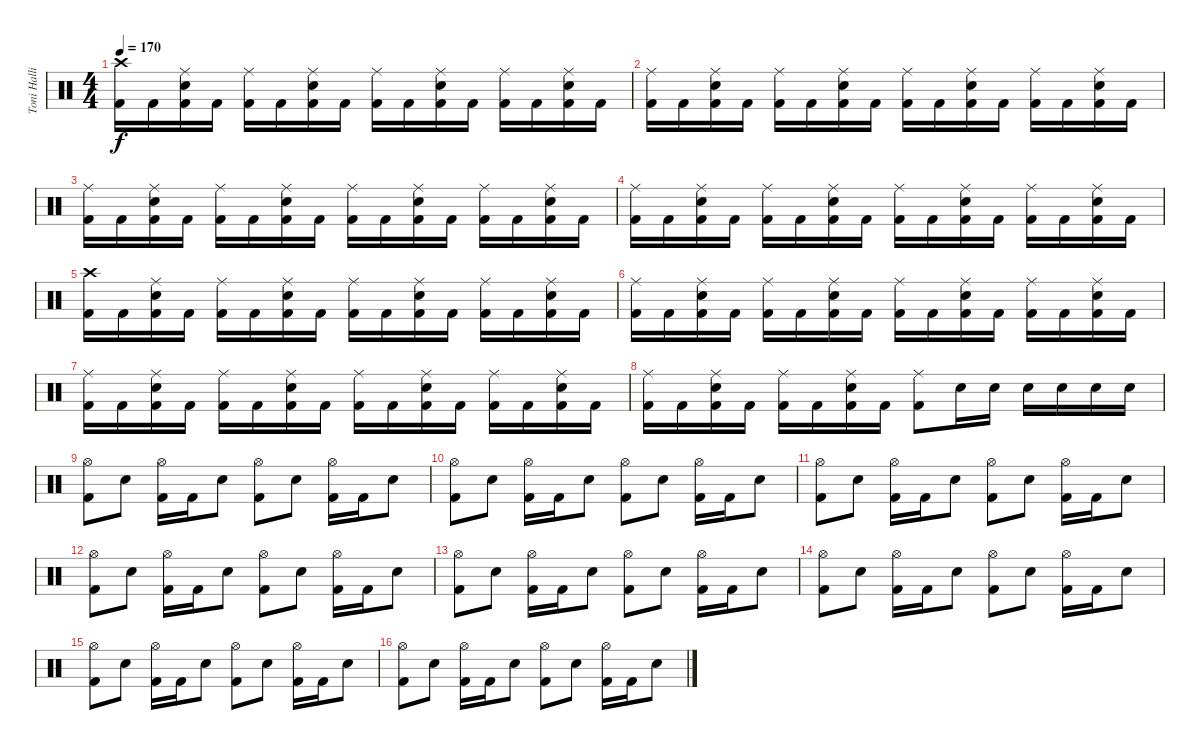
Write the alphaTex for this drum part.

\track ("Toni Hallio" "Toni Halli") {instrument percussion}
\staff {score}
\articulation defaults
\ts (4 4)
\tempo 170
\clef neutral
\ks c
("Crash high (hit)" "Kick (hit) 2").16{dy f} "Kick (hit) 2".16 ("Ride (middle)" "Snare (hit) 2" "Kick (hit) 2").16 "Kick (hit) 2".16 ("Ride (middle)" "Kick (hit) 2").16 "Kick (hit) 2".16 ("Ride (middle)" "Snare (hit) 2" "Kick (hit) 2").16 "Kick (hit) 2".16 ("Ride (middle)" "Kick (hit) 2").16 "Kick (hit) 2".16 ("Ride (middle)" "Snare (hit) 2" "Kick (hit) 2").16 "Kick (hit) 2".16 ("Ride (middle)" "Kick (hit) 2").16 "Kick (hit) 2".16 ("Ride (middle)" "Snare (hit) 2" "Kick (hit) 2").16 "Kick (hit) 2".16 |
("Ride (middle)" "Kick (hit) 2").16 "Kick (hit) 2".16 ("Ride (middle)" "Snare (hit) 2" "Kick (hit) 2").16 "Kick (hit) 2".16 ("Ride (middle)" "Kick (hit) 2").16 "Kick (hit) 2".16 ("Ride (middle)" "Snare (hit) 2" "Kick (hit) 2").16 "Kick (hit) 2".16 ("Ride (middle)" "Kick (hit) 2").16 "Kick (hit) 2".16 ("Ride (middle)" "Snare (hit) 2" "Kick (hit) 2").16 "Kick (hit) 2".16 ("Ride (middle)" "Kick (hit) 2").16 "Kick (hit) 2".16 ("Ride (middle)" "Snare (hit) 2" "Kick (hit) 2").16 "Kick (hit) 2".16 |
("Ride (middle)" "Kick (hit) 2").16 "Kick (hit) 2".16 ("Ride (middle)" "Snare (hit) 2" "Kick (hit) 2").16 "Kick (hit) 2".16 ("Ride (middle)" "Kick (hit) 2").16 "Kick (hit) 2".16 ("Ride (middle)" "Snare (hit) 2" "Kick (hit) 2").16 "Kick (hit) 2".16 ("Ride (middle)" "Kick (hit) 2").16 "Kick (hit) 2".16 ("Ride (middle)" "Snare (hit) 2" "Kick (hit) 2").16 "Kick (hit) 2".16 ("Ride (middle)" "Kick (hit) 2").16 "Kick (hit) 2".16 ("Ride (middle)" "Snare (hit) 2" "Kick (hit) 2").16 "Kick (hit) 2".16 |
("Ride (middle)" "Kick (hit) 2").16 "Kick (hit) 2".16 ("Ride (middle)" "Snare (hit) 2" "Kick (hit) 2").16 "Kick (hit) 2".16 ("Ride (middle)" "Kick (hit) 2").16 "Kick (hit) 2".16 ("Ride (middle)" "Snare (hit) 2" "Kick (hit) 2").16 "Kick (hit) 2".16 ("Ride (middle)" "Kick (hit) 2").16 "Kick (hit) 2".16 ("Ride (middle)" "Snare (hit) 2" "Kick (hit) 2").16 "Kick (hit) 2".16 ("Ride (middle)" "Kick (hit) 2").16 "Kick (hit) 2".16 ("Ride (middle)" "Snare (hit) 2" "Kick (hit) 2").16 "Kick (hit) 2".16 |
("Crash high (hit)" "Kick (hit) 2").16 "Kick (hit) 2".16 ("Ride (middle)" "Snare (hit) 2" "Kick (hit) 2").16 "Kick (hit) 2".16 ("Ride (middle)" "Kick (hit) 2").16 "Kick (hit) 2".16 ("Ride (middle)" "Snare (hit) 2" "Kick (hit) 2").16 "Kick (hit) 2".16 ("Ride (middle)" "Kick (hit) 2").16 "Kick (hit) 2".16 ("Ride (middle)" "Snare (hit) 2" "Kick (hit) 2").16 "Kick (hit) 2".16 ("Ride (middle)" "Kick (hit) 2").16 "Kick (hit) 2".16 ("Ride (middle)" "Snare (hit) 2" "Kick (hit) 2").16 "Kick (hit) 2".16 |
("Ride (middle)" "Kick (hit) 2").16 "Kick (hit) 2".16 ("Ride (middle)" "Snare (hit) 2" "Kick (hit) 2").16 "Kick (hit) 2".16 ("Ride (middle)" "Kick (hit) 2").16 "Kick (hit) 2".16 ("Ride (middle)" "Snare (hit) 2" "Kick (hit) 2").16 "Kick (hit) 2".16 ("Ride (middle)" "Kick (hit) 2").16 "Kick (hit) 2".16 ("Ride (middle)" "Snare (hit) 2" "Kick (hit) 2").16 "Kick (hit) 2".16 ("Ride (middle)" "Kick (hit) 2").16 "Kick (hit) 2".16 ("Ride (middle)" "Snare (hit) 2" "Kick (hit) 2").16 "Kick (hit) 2".16 |
("Ride (middle)" "Kick (hit) 2").16 "Kick (hit) 2".16 ("Ride (middle)" "Snare (hit) 2" "Kick (hit) 2").16 "Kick (hit) 2".16 ("Ride (middle)" "Kick (hit) 2").16 "Kick (hit) 2".16 ("Ride (middle)" "Snare (hit) 2" "Kick (hit) 2").16 "Kick (hit) 2".16 ("Ride (middle)" "Kick (hit) 2").16 "Kick (hit) 2".16 ("Ride (middle)" "Snare (hit) 2" "Kick (hit) 2").16 "Kick (hit) 2".16 ("Ride (middle)" "Kick (hit) 2").16 "Kick (hit) 2".16 ("Ride (middle)" "Snare (hit) 2" "Kick (hit) 2").16 "Kick (hit) 2".16 |
("Ride (middle)" "Kick (hit) 2").16 "Kick (hit) 2".16 ("Ride (middle)" "Snare (hit) 2" "Kick (hit) 2").16 "Kick (hit) 2".16 ("Ride (middle)" "Kick (hit) 2").16 "Kick (hit) 2".16 ("Ride (middle)" "Snare (hit) 2" "Kick (hit) 2").16 "Kick (hit) 2".16 ("Ride (middle)" "Kick (hit) 2").8 "Snare (hit) 2".16 "Snare (hit) 2".16 "Snare (hit) 2".16 "Snare (hit) 2".16 "Snare (hit) 2".16 "Snare (hit) 2".16 |
("Hi-Hat (open)" "Kick (hit) 2").8 "Snare (hit) 2".8 ("Hi-Hat (open)" "Kick (hit) 2").16 "Kick (hit) 2".16 "Snare (hit) 2".8 ("Hi-Hat (open)" "Kick (hit) 2").8 "Snare (hit) 2".8 ("Hi-Hat (open)" "Kick (hit) 2").16 "Kick (hit) 2".16 "Snare (hit) 2".8 |
("Hi-Hat (open)" "Kick (hit) 2").8 "Snare (hit) 2".8 ("Hi-Hat (open)" "Kick (hit) 2").16 "Kick (hit) 2".16 "Snare (hit) 2".8 ("Hi-Hat (open)" "Kick (hit) 2").8 "Snare (hit) 2".8 ("Hi-Hat (open)" "Kick (hit) 2").16 "Kick (hit) 2".16 "Snare (hit) 2".8 |
("Hi-Hat (open)" "Kick (hit) 2").8 "Snare (hit) 2".8 ("Hi-Hat (open)" "Kick (hit) 2").16 "Kick (hit) 2".16 "Snare (hit) 2".8 ("Hi-Hat (open)" "Kick (hit) 2").8 "Snare (hit) 2".8 ("Hi-Hat (open)" "Kick (hit) 2").16 "Kick (hit) 2".16 "Snare (hit) 2".8 |
("Hi-Hat (open)" "Kick (hit) 2").8 "Snare (hit) 2".8 ("Hi-Hat (open)" "Kick (hit) 2").16 "Kick (hit) 2".16 "Snare (hit) 2".8 ("Hi-Hat (open)" "Kick (hit) 2").8 "Snare (hit) 2".8 ("Hi-Hat (open)" "Kick (hit) 2").16 "Kick (hit) 2".16 "Snare (hit) 2".8 |
("Hi-Hat (open)" "Kick (hit) 2").8 "Snare (hit) 2".8 ("Hi-Hat (open)" "Kick (hit) 2").16 "Kick (hit) 2".16 "Snare (hit) 2".8 ("Hi-Hat (open)" "Kick (hit) 2").8 "Snare (hit) 2".8 ("Hi-Hat (open)" "Kick (hit) 2").16 "Kick (hit) 2".16 "Snare (hit) 2".8 |
("Hi-Hat (open)" "Kick (hit) 2").8 "Snare (hit) 2".8 ("Hi-Hat (open)" "Kick (hit) 2").16 "Kick (hit) 2".16 "Snare (hit) 2".8 ("Hi-Hat (open)" "Kick (hit) 2").8 "Snare (hit) 2".8 ("Hi-Hat (open)" "Kick (hit) 2").16 "Kick (hit) 2".16 "Snare (hit) 2".8 |
("Hi-Hat (open)" "Kick (hit) 2").8 "Snare (hit) 2".8 ("Hi-Hat (open)" "Kick (hit) 2").16 "Kick (hit) 2".16 "Snare (hit) 2".8 ("Hi-Hat (open)" "Kick (hit) 2").8 "Snare (hit) 2".8 ("Hi-Hat (open)" "Kick (hit) 2").16 "Kick (hit) 2".16 "Snare (hit) 2".8 |
("Hi-Hat (open)" "Kick (hit) 2").8 "Snare (hit) 2".8 ("Hi-Hat (open)" "Kick (hit) 2").16 "Kick (hit) 2".16 "Snare (hit) 2".8 ("Hi-Hat (open)" "Kick (hit) 2").8 "Snare (hit) 2".8 ("Hi-Hat (open)" "Kick (hit) 2").16 "Kick (hit) 2".16 "Snare (hit) 2".8
